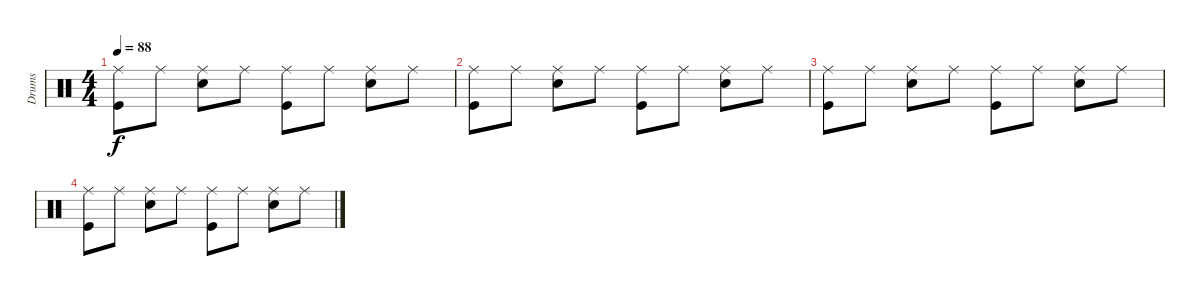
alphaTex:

\defaultSystemsLayout 4
\bracketExtendMode groupsimilarinstruments
\multiTrackTrackNamePolicy hidden
\otherSystemsTrackNameOrientation horizontal
\track ("Drumkit" "Drums") {instrument percussion}
\staff {score}
\articulation defaults
\ts (4 4)
\tempo 88
\clef neutral
\ks c
("Kick (hit)" "Ride (middle)").8{dy f} "Ride (middle)".8 ("Snare (hit) 2" "Ride (middle)").8 "Ride (middle)".8 ("Kick (hit)" "Ride (middle)").8 "Ride (middle)".8 ("Snare (hit) 2" "Ride (middle)").8 "Ride (middle)".8 |
("Kick (hit)" "Ride (middle)").8 "Ride (middle)".8 ("Snare (hit) 2" "Ride (middle)").8 "Ride (middle)".8 ("Kick (hit)" "Ride (middle)").8 "Ride (middle)".8 ("Snare (hit) 2" "Ride (middle)").8 "Ride (middle)".8 |
("Kick (hit)" "Ride (middle)").8 "Ride (middle)".8 ("Snare (hit) 2" "Ride (middle)").8 "Ride (middle)".8 ("Kick (hit)" "Ride (middle)").8 "Ride (middle)".8 ("Snare (hit) 2" "Ride (middle)").8 "Ride (middle)".8 |
("Kick (hit)" "Ride (middle)").8 "Ride (middle)".8 ("Snare (hit) 2" "Ride (middle)").8 "Ride (middle)".8 ("Kick (hit)" "Ride (middle)").8 "Ride (middle)".8 ("Snare (hit) 2" "Ride (middle)").8 "Ride (middle)".8
